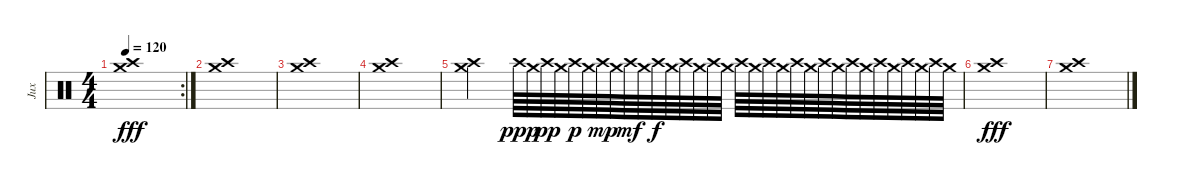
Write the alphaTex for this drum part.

\track ("Jux" "Jux") {instrument percussion}
\staff {score}
\articulation defaults
\rc 2
\ts (4 4)
\tempo 120
\clef neutral
\ks c
("Crash high (hit)" "Crash medium (hit)").1{dy fff} |
("Crash high (hit)" "Crash medium (hit)").1{volume 0} |
("Crash high (hit)" "Crash medium (hit)").1 |
("Crash high (hit)" "Crash medium (hit)").1 |
("Crash medium (hit)" "Crash high (hit)").2 "Crash high (hit)".64{dy ppp} "Crash medium (hit)".64 "Crash high (hit)".64{dy pp} "Crash medium (hit)".64 "Crash high (hit)".64{dy p} "Crash medium (hit)".64 "Crash high (hit)".64{dy mp} "Crash medium (hit)".64 "Crash high (hit)".64{dy mf} "Crash medium (hit)".64 "Crash high (hit)".64{dy f} "Crash medium (hit)".64 "Crash high (hit)".64 "Crash medium (hit)".64 "Crash high (hit)".64 "Crash medium (hit)".64 "Crash high (hit)".64 "Crash medium (hit)".64 "Crash high (hit)".64 "Crash medium (hit)".64 "Crash high (hit)".64 "Crash medium (hit)".64 "Crash high (hit)".64 "Crash medium (hit)".64 "Crash high (hit)".64 "Crash medium (hit)".64 "Crash high (hit)".64 "Crash medium (hit)".64 "Crash high (hit)".64 "Crash medium (hit)".64 "Crash high (hit)".64 "Crash medium (hit)".64 |
("Crash high (hit)" "Crash medium (hit)").1{dy fff} |
("Crash high (hit)" "Crash medium (hit)").1
